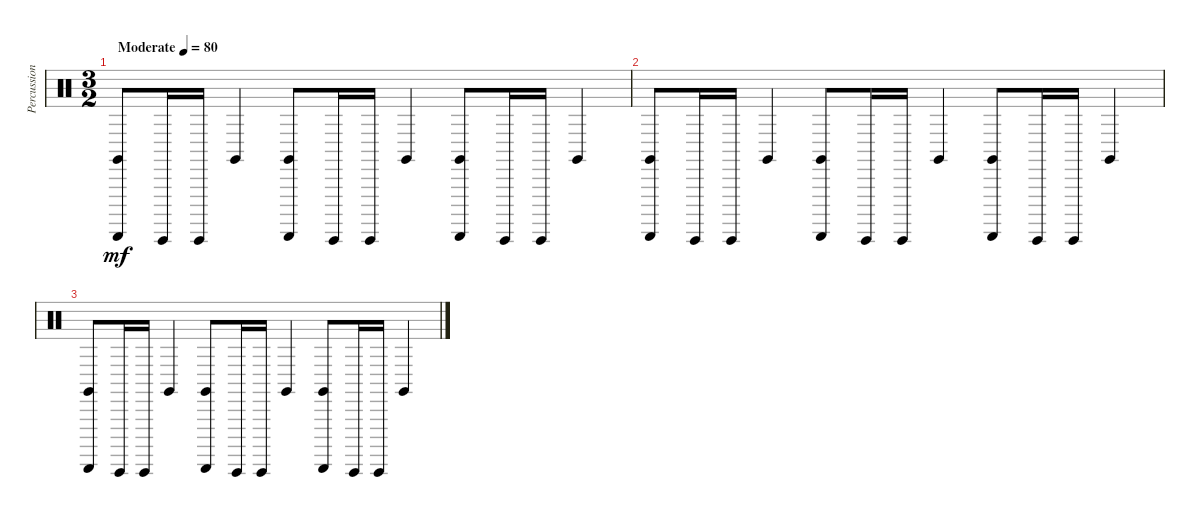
\track ("Percussion" "Percussion") {instrument percussion}
\staff {score}
\articulation defaults
\ts (3 2)
\tempo (80 "Moderate")
\clef neutral
\ks c
("Claves (hit)" "Guiro (scrap-return)").8{dy mf} "Guiro (hit)".16 "Guiro (hit)".16 "Claves (hit)".4 ("Claves (hit)" "Guiro (scrap-return)").8 "Guiro (hit)".16 "Guiro (hit)".16 "Claves (hit)".4 ("Claves (hit)" "Guiro (scrap-return)").8 "Guiro (hit)".16 "Guiro (hit)".16 "Claves (hit)".4 |
("Claves (hit)" "Guiro (scrap-return)").8 "Guiro (hit)".16 "Guiro (hit)".16 "Claves (hit)".4 ("Claves (hit)" "Guiro (scrap-return)").8 "Guiro (hit)".16 "Guiro (hit)".16 "Claves (hit)".4 ("Claves (hit)" "Guiro (scrap-return)").8 "Guiro (hit)".16 "Guiro (hit)".16 "Claves (hit)".4 |
("Claves (hit)" "Guiro (scrap-return)").8 "Guiro (hit)".16 "Guiro (hit)".16 "Claves (hit)".4 ("Claves (hit)" "Guiro (scrap-return)").8 "Guiro (hit)".16 "Guiro (hit)".16 "Claves (hit)".4 ("Claves (hit)" "Guiro (scrap-return)").8 "Guiro (hit)".16 "Guiro (hit)".16 "Claves (hit)".4
